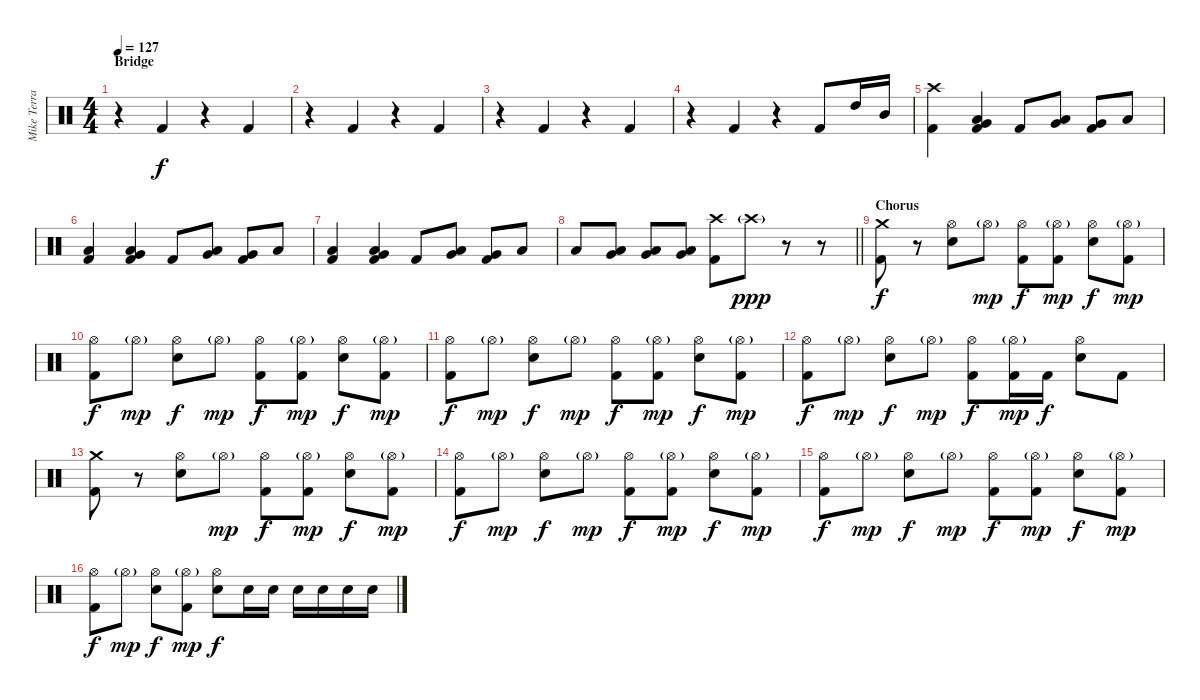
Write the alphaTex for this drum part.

\track ("Mike Terrana" "Mike Terra") {instrument percussion}
\staff {score}
\articulation defaults
\ts (4 4)
\section ("" "Bridge")
\tempo 127
\clef neutral
\ks c
r.4{dy mp} "Kick (hit) 2".4{dy f} r.4 "Kick (hit) 2".4 |
r.4 "Kick (hit) 2".4 r.4 "Kick (hit) 2".4 |
r.4 "Kick (hit) 2".4 r.4 "Kick (hit) 2".4 |
r.4 "Kick (hit) 2".4 r.4 "Kick (hit) 2".8 "High Tom (hit)".16 "Mid Tom (hit)".16 |
("Crash high (hit)" "Kick (hit) 2").4 ("Low Tom (hit)" "Very Low Tom (hit)" "Kick (hit) 2").4 "Kick (hit) 2".8 ("Very Low Tom (hit)" "Low Floor Tom (hit)").8 ("Very Low Tom (hit)" "Kick (hit) 2").8 "Low Floor Tom (hit)".8 |
("Low Floor Tom (hit)" "Kick (hit) 2").4 ("Low Tom (hit)" "Very Low Tom (hit)" "Kick (hit) 2").4 "Kick (hit) 2".8 ("Very Low Tom (hit)" "Low Floor Tom (hit)").8 ("Very Low Tom (hit)" "Kick (hit) 2").8 "Low Floor Tom (hit)".8 |
("Low Floor Tom (hit)" "Kick (hit) 2").4 ("Low Tom (hit)" "Very Low Tom (hit)" "Kick (hit) 2").4 "Kick (hit) 2".8 ("Very Low Tom (hit)" "Low Floor Tom (hit)").8 ("Very Low Tom (hit)" "Kick (hit) 2").8 "Low Floor Tom (hit)".8 |
\barLineRight lightlight "Low Floor Tom (hit)".8
("Very Low Tom (hit)" "Low Floor Tom (hit)").8 ("Very Low Tom (hit)" "Low Floor Tom (hit)").8 ("Very Low Tom (hit)" "Low Floor Tom (hit)").8 ("Crash high (hit)" "Kick (hit) 2").8 "Crash high (hit)"{g}.8{dy ppp} r.8 r.8 |
\section ("" "Chorus")
("Crash medium (hit)" "Kick (hit) 2").8{dy f} r.8 ("Hi-Hat (open)" "Snare (hit) 2").8 "Hi-Hat (open)"{g}.8{dy mp} ("Hi-Hat (open)" "Kick (hit) 2").8{dy f} ("Hi-Hat (open)"{g} "Kick (hit) 2").8{dy mp} ("Hi-Hat (open)" "Snare (hit) 2").8{dy f} ("Hi-Hat (open)"{g} "Kick (hit) 2").8{dy mp} |
("Hi-Hat (open)" "Kick (hit) 2").8{dy f} "Hi-Hat (open)"{g}.8{dy mp} ("Hi-Hat (open)" "Snare (hit) 2").8{dy f} "Hi-Hat (open)"{g}.8{dy mp} ("Hi-Hat (open)" "Kick (hit) 2").8{dy f} ("Hi-Hat (open)"{g} "Kick (hit) 2").8{dy mp} ("Hi-Hat (open)" "Snare (hit) 2").8{dy f} ("Hi-Hat (open)"{g} "Kick (hit) 2").8{dy mp} |
("Hi-Hat (open)" "Kick (hit) 2").8{dy f} "Hi-Hat (open)"{g}.8{dy mp} ("Hi-Hat (open)" "Snare (hit) 2").8{dy f} "Hi-Hat (open)"{g}.8{dy mp} ("Hi-Hat (open)" "Kick (hit) 2").8{dy f} ("Hi-Hat (open)"{g} "Kick (hit) 2").8{dy mp} ("Hi-Hat (open)" "Snare (hit) 2").8{dy f} ("Hi-Hat (open)"{g} "Kick (hit) 2").8{dy mp} |
("Hi-Hat (open)" "Kick (hit) 2").8{dy f} "Hi-Hat (open)"{g}.8{dy mp} ("Hi-Hat (open)" "Snare (hit) 2").8{dy f} "Hi-Hat (open)"{g}.8{dy mp} ("Hi-Hat (open)" "Kick (hit) 2").8{dy f} ("Hi-Hat (open)"{g} "Kick (hit) 2").16{dy mp} "Kick (hit) 2".16{dy f} ("Hi-Hat (open)" "Snare (hit) 2").8 "Kick (hit) 2".8 |
("Crash medium (hit)" "Kick (hit) 2").8 r.8 ("Hi-Hat (open)" "Snare (hit) 2").8 "Hi-Hat (open)"{g}.8{dy mp} ("Hi-Hat (open)" "Kick (hit) 2").8{dy f} ("Hi-Hat (open)"{g} "Kick (hit) 2").8{dy mp} ("Hi-Hat (open)" "Snare (hit) 2").8{dy f} ("Hi-Hat (open)"{g} "Kick (hit) 2").8{dy mp} |
("Hi-Hat (open)" "Kick (hit) 2").8{dy f} "Hi-Hat (open)"{g}.8{dy mp} ("Hi-Hat (open)" "Snare (hit) 2").8{dy f} "Hi-Hat (open)"{g}.8{dy mp} ("Hi-Hat (open)" "Kick (hit) 2").8{dy f} ("Hi-Hat (open)"{g} "Kick (hit) 2").8{dy mp} ("Hi-Hat (open)" "Snare (hit) 2").8{dy f} ("Hi-Hat (open)"{g} "Kick (hit) 2").8{dy mp} |
("Hi-Hat (open)" "Kick (hit) 2").8{dy f} "Hi-Hat (open)"{g}.8{dy mp} ("Hi-Hat (open)" "Snare (hit) 2").8{dy f} "Hi-Hat (open)"{g}.8{dy mp} ("Hi-Hat (open)" "Kick (hit) 2").8{dy f} ("Hi-Hat (open)"{g} "Kick (hit) 2").8{dy mp} ("Hi-Hat (open)" "Snare (hit) 2").8{dy f} ("Hi-Hat (open)"{g} "Kick (hit) 2").8{dy mp} |
("Hi-Hat (open)" "Kick (hit) 2").8{dy f} "Hi-Hat (open)"{g}.8{dy mp} ("Hi-Hat (open)" "Snare (hit) 2").8{dy f} ("Hi-Hat (open)"{g} "Kick (hit) 2").8{dy mp} ("Hi-Hat (open)" "Snare (hit) 2").8{dy f} "Snare (hit) 2".16 "Snare (hit) 2".16 "Snare (hit) 2".16 "Snare (hit) 2".16 "Snare (hit) 2".16 "Snare (hit) 2".16
